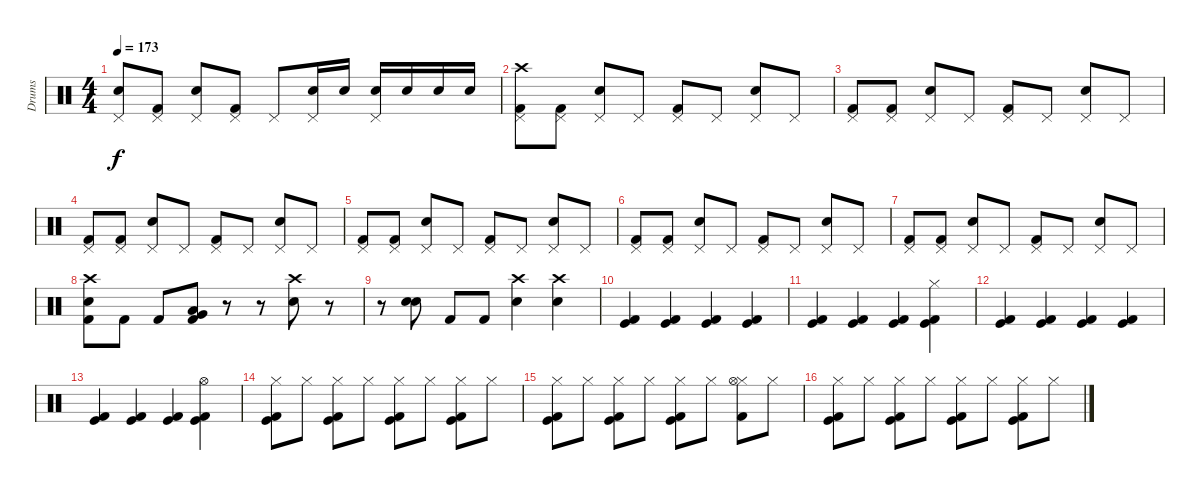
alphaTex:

\track ("Drums" "Drums") {instrument percussion}
\staff {score}
\articulation defaults
\ts (4 4)
\tempo 173
\clef neutral
\ks c
("Pedal Hi-Hat (hit)" "Snare (hit) 2").8{dy f} ("Pedal Hi-Hat (hit)" "Kick (hit) 2").8 ("Pedal Hi-Hat (hit)" "Snare (hit) 2").8 ("Pedal Hi-Hat (hit)" "Kick (hit) 2").8 "Pedal Hi-Hat (hit)".8 ("Pedal Hi-Hat (hit)" "Snare (hit) 2").16 "Snare (hit) 2".16 ("Pedal Hi-Hat (hit)" "Snare (hit) 2").16 "Snare (hit) 2".16 "Snare (hit) 2".16 "Snare (hit) 2".16 |
("Crash high (hit)" "Pedal Hi-Hat (hit)" "Kick (hit) 2").8 ("Pedal Hi-Hat (hit)" "Kick (hit) 2").8 ("Pedal Hi-Hat (hit)" "Snare (hit) 2").8 "Pedal Hi-Hat (hit)".8 ("Pedal Hi-Hat (hit)" "Kick (hit) 2").8 "Pedal Hi-Hat (hit)".8 ("Pedal Hi-Hat (hit)" "Snare (hit) 2").8 "Pedal Hi-Hat (hit)".8 |
("Pedal Hi-Hat (hit)" "Kick (hit) 2").8 ("Pedal Hi-Hat (hit)" "Kick (hit) 2").8 ("Pedal Hi-Hat (hit)" "Snare (hit) 2").8 "Pedal Hi-Hat (hit)".8 ("Pedal Hi-Hat (hit)" "Kick (hit) 2").8 "Pedal Hi-Hat (hit)".8 ("Pedal Hi-Hat (hit)" "Snare (hit) 2").8 "Pedal Hi-Hat (hit)".8 |
("Pedal Hi-Hat (hit)" "Kick (hit) 2").8 ("Pedal Hi-Hat (hit)" "Kick (hit) 2").8 ("Pedal Hi-Hat (hit)" "Snare (hit) 2").8 "Pedal Hi-Hat (hit)".8 ("Pedal Hi-Hat (hit)" "Kick (hit) 2").8 "Pedal Hi-Hat (hit)".8 ("Pedal Hi-Hat (hit)" "Snare (hit) 2").8 "Pedal Hi-Hat (hit)".8 |
("Pedal Hi-Hat (hit)" "Kick (hit) 2").8 ("Pedal Hi-Hat (hit)" "Kick (hit) 2").8 ("Pedal Hi-Hat (hit)" "Snare (hit) 2").8 "Pedal Hi-Hat (hit)".8 ("Pedal Hi-Hat (hit)" "Kick (hit) 2").8 "Pedal Hi-Hat (hit)".8 ("Pedal Hi-Hat (hit)" "Snare (hit) 2").8 "Pedal Hi-Hat (hit)".8 |
("Pedal Hi-Hat (hit)" "Kick (hit) 2").8 ("Pedal Hi-Hat (hit)" "Kick (hit) 2").8 ("Pedal Hi-Hat (hit)" "Snare (hit) 2").8 "Pedal Hi-Hat (hit)".8 ("Pedal Hi-Hat (hit)" "Kick (hit) 2").8 "Pedal Hi-Hat (hit)".8 ("Pedal Hi-Hat (hit)" "Snare (hit) 2").8 "Pedal Hi-Hat (hit)".8 |
("Pedal Hi-Hat (hit)" "Kick (hit) 2").8 ("Pedal Hi-Hat (hit)" "Kick (hit) 2").8 ("Pedal Hi-Hat (hit)" "Snare (hit) 2").8 "Pedal Hi-Hat (hit)".8 ("Pedal Hi-Hat (hit)" "Kick (hit) 2").8 "Pedal Hi-Hat (hit)".8 ("Pedal Hi-Hat (hit)" "Snare (hit) 2").8 "Pedal Hi-Hat (hit)".8 |
("Crash high (hit)" "Snare (hit) 2" "Kick (hit) 2").8 "Kick (hit) 2".8 "Kick (hit) 2".8 ("Kick (hit) 2" "Very Low Tom (hit)" "Low Floor Tom (hit)").8 r.8 r.8 ("Snare (hit) 2" "Crash high (hit)").8 r.8 |
r.8 ("Snare (hit) 2" "Electric Snare (hit)").8 "Kick (hit) 2".8 "Kick (hit) 2".8 ("Crash high (hit)" "Snare (hit) 2").4 ("Crash high (hit)" "Snare (hit) 2").4 |
("Kick (hit) 2" "Kick (hit)").4 ("Kick (hit) 2" "Kick (hit)").4 ("Kick (hit) 2" "Kick (hit)").4 ("Kick (hit) 2" "Kick (hit)").4 |
("Kick (hit) 2" "Kick (hit)").4 ("Kick (hit) 2" "Kick (hit)").4 ("Kick (hit) 2" "Kick (hit)").4 ("Hi-Hat (closed)" "Kick (hit) 2" "Kick (hit)").4 |
("Kick (hit) 2" "Kick (hit)").4 ("Kick (hit) 2" "Kick (hit)").4 ("Kick (hit) 2" "Kick (hit)").4 ("Kick (hit) 2" "Kick (hit)").4 |
("Kick (hit) 2" "Kick (hit)").4 ("Kick (hit) 2" "Kick (hit)").4 ("Kick (hit) 2" "Kick (hit)").4 ("Hi-Hat (open)" "Kick (hit) 2" "Kick (hit)").4 |
("Kick (hit) 2" "Hi-Hat (closed)" "Kick (hit)").8 "Hi-Hat (closed)".8 ("Kick (hit) 2" "Hi-Hat (closed)" "Kick (hit)").8 "Hi-Hat (closed)".8 ("Kick (hit) 2" "Hi-Hat (closed)" "Kick (hit)").8 "Hi-Hat (closed)".8 ("Kick (hit) 2" "Hi-Hat (closed)" "Kick (hit)").8 "Hi-Hat (closed)".8 |
("Kick (hit) 2" "Hi-Hat (closed)" "Kick (hit)").8 "Hi-Hat (closed)".8 ("Kick (hit) 2" "Hi-Hat (closed)" "Kick (hit)").8 "Hi-Hat (closed)".8 ("Kick (hit) 2" "Hi-Hat (closed)" "Kick (hit)").8 "Hi-Hat (closed)".8 ("Kick (hit) 2" "Hi-Hat (closed)" "Hi-Hat (open)").8 "Hi-Hat (closed)".8 |
("Kick (hit) 2" "Hi-Hat (closed)" "Kick (hit)").8 "Hi-Hat (closed)".8 ("Kick (hit) 2" "Hi-Hat (closed)" "Kick (hit)").8 "Hi-Hat (closed)".8 ("Kick (hit) 2" "Hi-Hat (closed)" "Kick (hit)").8 "Hi-Hat (closed)".8 ("Kick (hit) 2" "Hi-Hat (closed)" "Kick (hit)").8 "Hi-Hat (closed)".8
